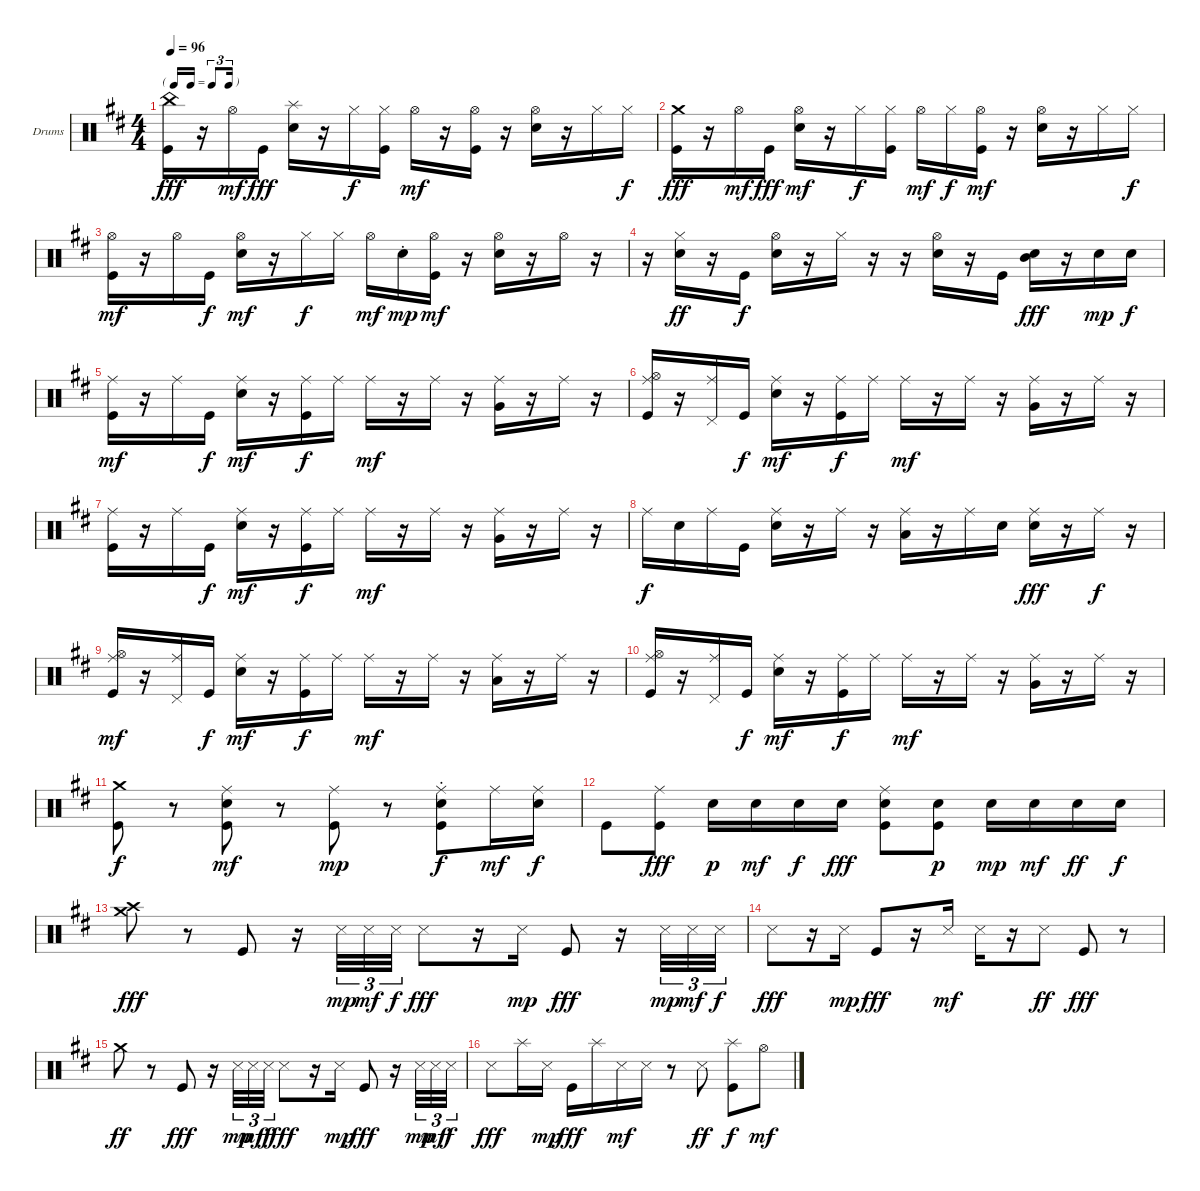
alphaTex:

\bracketExtendMode groupsimilarinstruments
\firstSystemTrackNameOrientation horizontal
\otherSystemsTrackNameOrientation horizontal
\track ("Drumkit" "Drums") {instrument percussion}
\staff {score}
\articulation defaults
\ts (4 4)
\tf triplet16th
\tempo 96
\clef neutral
\ks d
("China (hit)" "Kick (hit)").16{dy fff} r.16 "Hi-Hat (open)".16{dy mf} "Kick (hit)".16{dy fff} ("Splash (hit)" "Snare (hit) 2").16 r.16 "Hi-Hat (closed)".16{dy f} ("Hi-Hat (closed)" "Kick (hit)").16 "Hi-Hat (open)".16{dy mf} r.16 ("Hi-Hat (open)" "Kick (hit)").16 r.16 ("Hi-Hat (open)" "Snare (hit) 2").16 r.16 "Hi-Hat (closed)".16 "Hi-Hat (closed)".16{dy f} |
("Crash medium (hit)" "Kick (hit)").16{dy fff} r.16 "Hi-Hat (open)".16{dy mf} "Kick (hit)".16{dy fff} ("Hi-Hat (open)" "Snare (hit) 2").16{dy mf} r.16 "Hi-Hat (closed)".16{dy f} ("Hi-Hat (closed)" "Kick (hit)").16 "Hi-Hat (open)".16{dy mf} "Hi-Hat (closed)".16{dy f} ("Hi-Hat (open)" "Kick (hit)").16{dy mf} r.16 ("Hi-Hat (open)" "Snare (hit) 2").16 r.16 "Hi-Hat (closed)".16 "Hi-Hat (closed)".16{dy f} |
("Hi-Hat (open)" "Kick (hit)").16{dy mf} r.16 "Hi-Hat (open)".16 "Kick (hit)".16{dy f} ("Hi-Hat (open)" "Snare (hit) 2").16{dy mf} r.16 "Hi-Hat (closed)".16{dy f} "Hi-Hat (closed)".16 "Hi-Hat (open)".16{dy mf} "Snare (hit) 2"{st}.16{dy mp} ("Hi-Hat (open)" "Kick (hit)").16{dy mf} r.16 ("Hi-Hat (open)" "Snare (hit) 2").16 r.16 "Hi-Hat (open)".16 r.16 |
r.16 ("Hi-Hat (closed)" "Snare (hit) 2").16{dy ff} r.16 "Kick (hit)".16{dy f} ("Hi-Hat (open)" "Snare (hit) 2").16 r.16 "Hi-Hat (closed)".16 r.16 r.16 ("Hi-Hat (open)" "Snare (hit) 2").16 r.16 "Kick (hit)".16 ("Mid Tom (hit)" "Snare (hit) 2").16{dy fff} r.16 "Snare (hit) 2".16{dy mp} "Snare (hit) 2".16{dy f} |
("Ride (middle)" "Kick (hit)").16{dy mf} r.16 "Ride (middle)".16 "Kick (hit)".16{dy f} ("Ride (middle)" "Snare (hit) 2").16{dy mf} r.16 ("Ride (middle)" "Kick (hit)").16{dy f} "Ride (middle)".16 "Ride (middle)".16{dy mf} r.16 "Ride (middle)".16 r.16 ("Ride (middle)" "Very Low Tom (hit)").16 r.16 "Ride (middle)".16 r.16 |
("Ride (middle)" "Hi-Hat (open)" "Kick (hit)").16 r.16 ("Ride (middle)" "Pedal Hi-Hat (hit)").16 "Kick (hit)".16{dy f} ("Ride (middle)" "Snare (hit) 2").16{dy mf} r.16 ("Ride (middle)" "Kick (hit)").16{dy f} "Ride (middle)".16 "Ride (middle)".16{dy mf} r.16 "Ride (middle)".16 r.16 ("Ride (middle)" "Very Low Tom (hit)").16 r.16 "Ride (middle)".16 r.16 |
("Ride (middle)" "Kick (hit)").16 r.16 "Ride (middle)".16 "Kick (hit)".16{dy f} ("Ride (middle)" "Snare (hit) 2").16{dy mf} r.16 ("Ride (middle)" "Kick (hit)").16{dy f} "Ride (middle)".16 "Ride (middle)".16{dy mf} r.16 "Ride (middle)".16 r.16 ("Ride (middle)" "Very Low Tom (hit)").16 r.16 "Ride (middle)".16 r.16 |
"Ride (middle)".16{dy f} "Snare (hit) 2".16 "Ride (middle)".16 "Kick (hit)".16 ("Ride (middle)" "Snare (hit) 2").16 r.16 "Ride (middle)".16 r.16 ("Ride (middle)" "Low Tom (hit)").16 r.16 "Ride (middle)".16 "Snare (hit) 2".16 ("Ride (middle)" "Snare (hit) 2").16{dy fff} r.16 "Ride (middle)".16{dy f} r.16 |
("Ride (middle)" "Hi-Hat (open)" "Kick (hit)").16{dy mf} r.16 ("Ride (middle)" "Pedal Hi-Hat (hit)").16 "Kick (hit)".16{dy f} ("Ride (middle)" "Snare (hit) 2").16{dy mf} r.16 ("Ride (middle)" "Kick (hit)").16{dy f} "Ride (middle)".16 "Ride (middle)".16{dy mf} r.16 "Ride (middle)".16 r.16 ("Ride (middle)" "Low Tom (hit)").16 r.16 "Ride (middle)".16 r.16 |
("Ride (middle)" "Hi-Hat (open)" "Kick (hit)").16 r.16 ("Ride (middle)" "Pedal Hi-Hat (hit)").16 "Kick (hit)".16{dy f} ("Ride (middle)" "Snare (hit) 2").16{dy mf} r.16 ("Ride (middle)" "Kick (hit)").16{dy f} "Ride (middle)".16 "Ride (middle)".16{dy mf} r.16 "Ride (middle)".16 r.16 ("Ride (middle)" "Very Low Tom (hit)").16 r.16 "Ride (middle)".16 r.16 |
("Crash medium (hit)" "Kick (hit)").8{dy f} r.8 ("Ride (middle)" "Snare (hit) 2" "Kick (hit)").8{dy mf} r.8 ("Ride (middle)" "Kick (hit)").8{dy mp} r.8 ("Ride (middle)" "Snare (hit) 2"{st} "Kick (hit)"{st}).8{dy f} "Ride (middle)".16{dy mf} ("Ride (middle)" "Snare (hit) 2").16{dy f} |
"Kick (hit)".8 ("Ride (middle)" "Kick (hit)").8{dy fff} "Snare (hit) 2".16{dy p} "Snare (hit) 2".16{dy mf} "Snare (hit) 2".16{dy f} "Snare (hit) 2".16{dy fff} ("Ride (middle)" "Snare (hit) 2" "Kick (hit)").8 ("Snare (hit) 2" "Kick (hit)").8{dy p} "Snare (hit) 2".16{dy mp} "Snare (hit) 2".16{dy mf} "Snare (hit) 2".16{dy ff} "Snare (hit) 2".16{dy f} |
("Crash medium (hit)" "Crash high (hit)").8{dy fff} r.8 "Kick (hit)".8 r.16 "Snare (side stick) 3".32{tu (3 2) dy mp} "Snare (side stick) 3".32{tu (3 2) dy mf} "Snare (side stick) 3".32{tu (3 2) dy f} "Snare (side stick) 3".8{dy fff} r.16 "Snare (side stick) 3".16{dy mp} "Kick (hit)".8{dy fff} r.16 "Snare (side stick) 3".32{tu (3 2) dy mp} "Snare (side stick) 3".32{tu (3 2) dy mf} "Snare (side stick) 3".32{tu (3 2) dy f} |
"Snare (side stick) 3".8{dy fff} r.16 "Snare (side stick) 3".16{dy mp} "Kick (hit)".8{dy fff} r.16 "Snare (side stick) 3".16{dy mf} "Snare (side stick) 3".16 r.16 "Snare (side stick) 3".8{dy ff} "Kick (hit)".8{dy fff} r.8 |
"Crash medium (hit)".8{dy ff} r.8 "Kick (hit)".8{dy fff} r.16 "Snare (side stick) 3".32{tu (3 2) dy mp} "Snare (side stick) 3".32{tu (3 2) dy mf} "Snare (side stick) 3".32{tu (3 2) dy f} "Snare (side stick) 3".8{dy fff} r.16 "Snare (side stick) 3".16{dy mp} "Kick (hit)".8{dy fff} r.16 "Snare (side stick) 3".32{tu (3 2) dy mp} "Snare (side stick) 3".32{tu (3 2) dy mf} "Snare (side stick) 3".32{tu (3 2) dy f} |
"Snare (side stick) 3".8{dy fff} "Splash (hit)".16 "Snare (side stick) 3".16{dy mp} "Kick (hit)".16{dy fff} "Splash (hit)".16 "Snare (side stick) 3".16{dy mf} "Snare (side stick) 3".16 r.8 "Snare (side stick) 3".8{dy ff} ("Splash (hit)" "Kick (hit)").8{dy f} "Hi-Hat (open)".8{dy mf}
